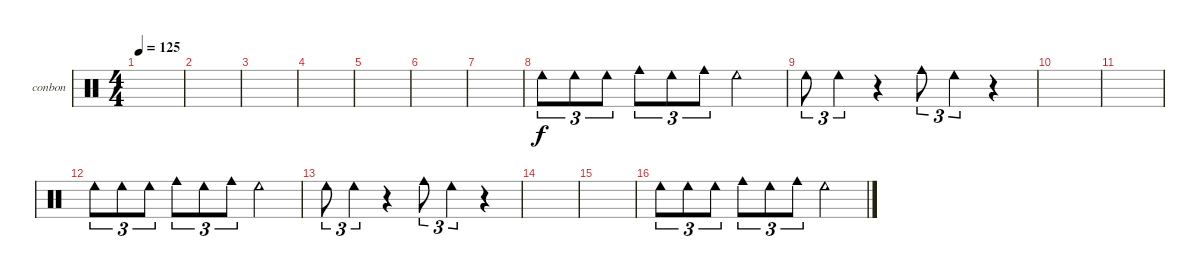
\defaultSystemsLayout 4
\bracketExtendMode groupsimilarinstruments
\firstSystemTrackNameOrientation horizontal
\otherSystemsTrackNameOrientation horizontal
\track ("Bongos N Congas" "conbon") {instrument percussion}
\staff {score}
\articulation defaults
\ts (4 4)
\tempo 125
\clef neutral
\scale
0.474178
\ks c
|
\scale
0.262911 |
\scale
0.262911 |
\scale
0.333333 |
\scale
0.333333 |
\scale
0.333333 |
\scale
0.333333 |
\scale
0.333333 "Cowbell low (hit)".8{tu (3 2)} "Cowbell low (hit)".8{tu (3 2)} "Cowbell low (hit)".8{tu (3 2)} "Cowbell medium (hit)".8{tu (3 2)} "Cowbell low (hit)".8{tu (3 2)} "Cowbell medium (hit)".8{tu (3 2)} "Cowbell low (hit)".2 |
"Cowbell low (hit)".8{tu (3 2)} "Cowbell low (hit)".4{tu (3 2)} r.4 "Cowbell medium (hit)".8{tu (3 2)} "Cowbell low (hit)".4{tu (3 2)} r.4 |
\scale
0.333333 |
\scale
0.333333 |
\scale
0.333333 "Cowbell low (hit)".8{tu (3 2)} "Cowbell low (hit)".8{tu (3 2)} "Cowbell low (hit)".8{tu (3 2)} "Cowbell medium (hit)".8{tu (3 2)} "Cowbell low (hit)".8{tu (3 2)} "Cowbell medium (hit)".8{tu (3 2)} "Cowbell low (hit)".2 |
\scale
0.333333 "Cowbell low (hit)".8{tu (3 2)} "Cowbell low (hit)".4{tu (3 2)} r.4 "Cowbell medium (hit)".8{tu (3 2)} "Cowbell low (hit)".4{tu (3 2)} r.4 |
\scale
0.333333 |
\scale
0.333333 |
\scale
0.333333 "Cowbell low (hit)".8{tu (3 2)} "Cowbell low (hit)".8{tu (3 2)} "Cowbell low (hit)".8{tu (3 2)} "Cowbell medium (hit)".8{tu (3 2)} "Cowbell low (hit)".8{tu (3 2)} "Cowbell medium (hit)".8{tu (3 2)} "Cowbell low (hit)".2
